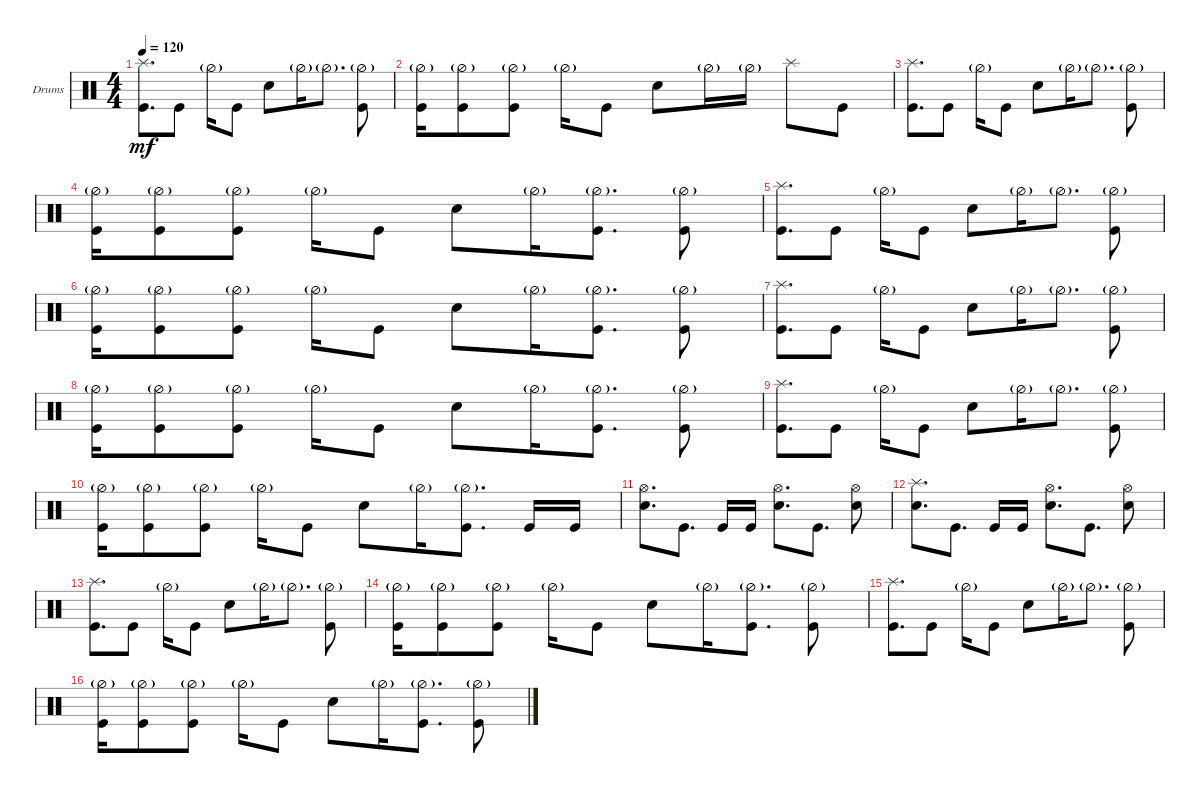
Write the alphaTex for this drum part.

\defaultSystemsLayout 4
\bracketExtendMode groupsimilarinstruments
\firstSystemTrackNameOrientation horizontal
\otherSystemsTrackNameOrientation horizontal
\track ("Kai" "Drums") {instrument percussion}
\staff {score}
\articulation defaults
\ts (4 4)
\tempo 120
\clef neutral
\ks c
("Kick (hit)" "Splash (hit)").8{d dy mf} "Kick (hit)".8 "Hi-Hat (half)"{g}.16 "Kick (hit)".8 "Snare (hit) 2".8 "Hi-Hat (half)"{g}.16 "Hi-Hat (half)"{g}.8{d} ("Kick (hit)" "Hi-Hat (half)"{g}).8 |
("Kick (hit)" "Hi-Hat (half)"{g}).16 ("Kick (hit)" "Hi-Hat (half)"{g}).8 ("Kick (hit)" "Hi-Hat (half)"{g}).8 "Hi-Hat (half)"{g}.16 "Kick (hit)".8 "Snare (hit) 2".8 "Hi-Hat (half)"{g}.16 "Hi-Hat (half)"{g}.16 "Splash (hit)".8 "Kick (hit)".8 |
("Kick (hit)" "Splash (hit)").8{d} "Kick (hit)".8 "Hi-Hat (half)"{g}.16 "Kick (hit)".8 "Snare (hit) 2".8 "Hi-Hat (half)"{g}.16 "Hi-Hat (half)"{g}.8{d} ("Kick (hit)" "Hi-Hat (half)"{g}).8 |
("Kick (hit)" "Hi-Hat (half)"{g}).16 ("Kick (hit)" "Hi-Hat (half)"{g}).8 ("Kick (hit)" "Hi-Hat (half)"{g}).8 "Hi-Hat (half)"{g}.16 "Kick (hit)".8 "Snare (hit) 2".8 "Hi-Hat (half)"{g}.16 ("Hi-Hat (half)"{g} "Kick (hit)").8{d} ("Kick (hit)" "Hi-Hat (half)"{g}).8 |
("Kick (hit)" "Splash (hit)").8{d} "Kick (hit)".8 "Hi-Hat (half)"{g}.16 "Kick (hit)".8 "Snare (hit) 2".8 "Hi-Hat (half)"{g}.16 "Hi-Hat (half)"{g}.8{d} ("Kick (hit)" "Hi-Hat (half)"{g}).8 |
("Kick (hit)" "Hi-Hat (half)"{g}).16 ("Kick (hit)" "Hi-Hat (half)"{g}).8 ("Kick (hit)" "Hi-Hat (half)"{g}).8 "Hi-Hat (half)"{g}.16 "Kick (hit)".8 "Snare (hit) 2".8 "Hi-Hat (half)"{g}.16 ("Hi-Hat (half)"{g} "Kick (hit)").8{d} ("Kick (hit)" "Hi-Hat (half)"{g}).8 |
("Kick (hit)" "Splash (hit)").8{d} "Kick (hit)".8 "Hi-Hat (half)"{g}.16 "Kick (hit)".8 "Snare (hit) 2".8 "Hi-Hat (half)"{g}.16 "Hi-Hat (half)"{g}.8{d} ("Kick (hit)" "Hi-Hat (half)"{g}).8 |
("Kick (hit)" "Hi-Hat (half)"{g}).16 ("Kick (hit)" "Hi-Hat (half)"{g}).8 ("Kick (hit)" "Hi-Hat (half)"{g}).8 "Hi-Hat (half)"{g}.16 "Kick (hit)".8 "Snare (hit) 2".8 "Hi-Hat (half)"{g}.16 ("Hi-Hat (half)"{g} "Kick (hit)").8{d} ("Kick (hit)" "Hi-Hat (half)"{g}).8 |
("Kick (hit)" "Splash (hit)").8{d} "Kick (hit)".8 "Hi-Hat (half)"{g}.16 "Kick (hit)".8 "Snare (hit) 2".8 "Hi-Hat (half)"{g}.16 "Hi-Hat (half)"{g}.8{d} ("Kick (hit)" "Hi-Hat (half)"{g}).8 |
("Kick (hit)" "Hi-Hat (half)"{g}).16 ("Kick (hit)" "Hi-Hat (half)"{g}).8 ("Kick (hit)" "Hi-Hat (half)"{g}).8 "Hi-Hat (half)"{g}.16 "Kick (hit)".8 "Snare (hit) 2".8 "Hi-Hat (half)"{g}.16 ("Hi-Hat (half)"{g} "Kick (hit)").8{d} "Kick (hit)".16 "Kick (hit)".16 |
("Hi-Hat (open)" "Snare (hit) 2").8{d} "Kick (hit)".8{d} "Kick (hit)".16 "Kick (hit)".16 ("Hi-Hat (open)" "Snare (hit) 2").8{d} "Kick (hit)".8{d} ("Snare (hit) 2" "Hi-Hat (open)").8 |
("Snare (hit) 2" "Splash (hit)").8{d} "Kick (hit)".8{d} "Kick (hit)".16 "Kick (hit)".16 ("Hi-Hat (open)" "Snare (hit) 2").8{d} "Kick (hit)".8{d} ("Snare (hit) 2" "Hi-Hat (open)").8 |
("Kick (hit)" "Splash (hit)").8{d} "Kick (hit)".8 "Hi-Hat (half)"{g}.16 "Kick (hit)".8 "Snare (hit) 2".8 "Hi-Hat (half)"{g}.16 "Hi-Hat (half)"{g}.8{d} ("Kick (hit)" "Hi-Hat (half)"{g}).8 |
("Kick (hit)" "Hi-Hat (half)"{g}).16 ("Kick (hit)" "Hi-Hat (half)"{g}).8 ("Kick (hit)" "Hi-Hat (half)"{g}).8 "Hi-Hat (half)"{g}.16 "Kick (hit)".8 "Snare (hit) 2".8 "Hi-Hat (half)"{g}.16 ("Hi-Hat (half)"{g} "Kick (hit)").8{d} ("Kick (hit)" "Hi-Hat (half)"{g}).8 |
("Kick (hit)" "Splash (hit)").8{d} "Kick (hit)".8 "Hi-Hat (half)"{g}.16 "Kick (hit)".8 "Snare (hit) 2".8 "Hi-Hat (half)"{g}.16 "Hi-Hat (half)"{g}.8{d} ("Kick (hit)" "Hi-Hat (half)"{g}).8 |
("Kick (hit)" "Hi-Hat (half)"{g}).16 ("Kick (hit)" "Hi-Hat (half)"{g}).8 ("Kick (hit)" "Hi-Hat (half)"{g}).8 "Hi-Hat (half)"{g}.16 "Kick (hit)".8 "Snare (hit) 2".8 "Hi-Hat (half)"{g}.16 ("Hi-Hat (half)"{g} "Kick (hit)").8{d} ("Kick (hit)" "Hi-Hat (half)"{g}).8
